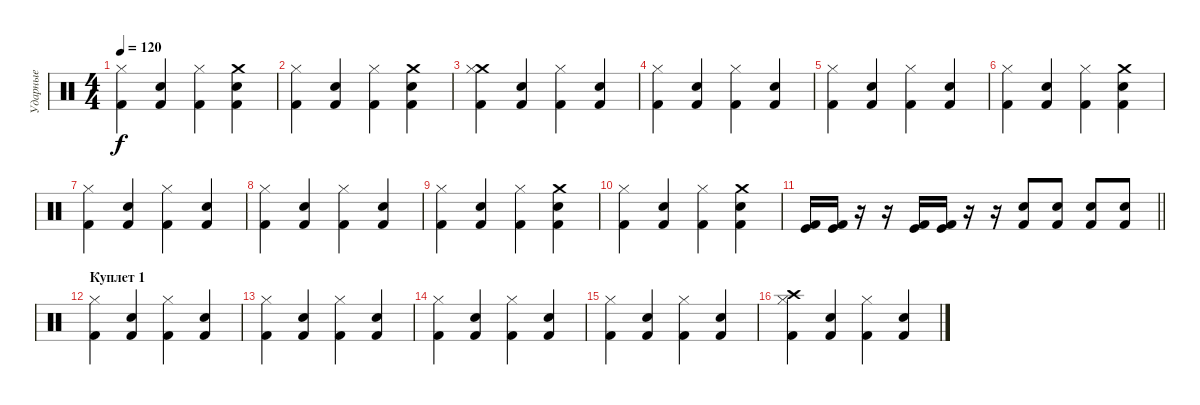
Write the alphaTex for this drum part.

\track ("Ударные" "Ударные") {instrument percussion}
\staff {score}
\articulation defaults
\ts (4 4)
\tempo 120
\clef neutral
\ks c
("Hi-Hat (closed)" "Kick (hit) 2").4{dy f} ("Snare (hit) 2" "Kick (hit) 2").4 ("Hi-Hat (closed)" "Kick (hit) 2").4 ("Crash medium (hit)" "Snare (hit) 2" "Kick (hit) 2").4 |
("Hi-Hat (closed)" "Kick (hit) 2").4 ("Snare (hit) 2" "Kick (hit) 2").4 ("Hi-Hat (closed)" "Kick (hit) 2").4 ("Crash medium (hit)" "Snare (hit) 2" "Kick (hit) 2").4 |
("Crash medium (hit)" "Hi-Hat (closed)" "Kick (hit) 2").4 ("Snare (hit) 2" "Kick (hit) 2").4 ("Hi-Hat (closed)" "Kick (hit) 2").4 ("Snare (hit) 2" "Kick (hit) 2").4 |
("Hi-Hat (closed)" "Kick (hit) 2").4 ("Snare (hit) 2" "Kick (hit) 2").4 ("Hi-Hat (closed)" "Kick (hit) 2").4 ("Snare (hit) 2" "Kick (hit) 2").4 |
("Hi-Hat (closed)" "Kick (hit) 2").4 ("Snare (hit) 2" "Kick (hit) 2").4 ("Hi-Hat (closed)" "Kick (hit) 2").4 ("Snare (hit) 2" "Kick (hit) 2").4 |
("Hi-Hat (closed)" "Kick (hit) 2").4 ("Snare (hit) 2" "Kick (hit) 2").4 ("Hi-Hat (closed)" "Kick (hit) 2").4 ("Crash medium (hit)" "Snare (hit) 2" "Kick (hit) 2").4 |
("Hi-Hat (closed)" "Kick (hit) 2").4 ("Snare (hit) 2" "Kick (hit) 2").4 ("Hi-Hat (closed)" "Kick (hit) 2").4 ("Snare (hit) 2" "Kick (hit) 2").4 |
("Hi-Hat (closed)" "Kick (hit) 2").4 ("Snare (hit) 2" "Kick (hit) 2").4 ("Hi-Hat (closed)" "Kick (hit) 2").4 ("Snare (hit) 2" "Kick (hit) 2").4 |
("Hi-Hat (closed)" "Kick (hit) 2").4 ("Snare (hit) 2" "Kick (hit) 2").4 ("Hi-Hat (closed)" "Kick (hit) 2").4 ("Crash medium (hit)" "Snare (hit) 2" "Kick (hit) 2").4 |
("Hi-Hat (closed)" "Kick (hit) 2").4 ("Snare (hit) 2" "Kick (hit) 2").4 ("Hi-Hat (closed)" "Kick (hit) 2").4 ("Crash medium (hit)" "Snare (hit) 2" "Kick (hit) 2").4 |
\barLineRight lightlight
("Kick (hit)" "Kick (hit) 2").16 ("Kick (hit)" "Kick (hit) 2").16 r.16 r.16 ("Kick (hit)" "Kick (hit) 2").16 ("Kick (hit)" "Kick (hit) 2").16 r.16 r.16 ("Snare (hit) 2" "Kick (hit) 2").8 ("Snare (hit) 2" "Kick (hit) 2").8 ("Snare (hit) 2" "Kick (hit) 2").8 ("Snare (hit) 2" "Kick (hit) 2").8 |
\section ("" "Куплет 1 ")
("Hi-Hat (closed)" "Kick (hit) 2").4 ("Snare (hit) 2" "Kick (hit) 2").4 ("Hi-Hat (closed)" "Kick (hit) 2").4 ("Snare (hit) 2" "Kick (hit) 2").4 |
("Hi-Hat (closed)" "Kick (hit) 2").4 ("Snare (hit) 2" "Kick (hit) 2").4 ("Hi-Hat (closed)" "Kick (hit) 2").4 ("Snare (hit) 2" "Kick (hit) 2").4 |
("Hi-Hat (closed)" "Kick (hit) 2").4 ("Snare (hit) 2" "Kick (hit) 2").4 ("Hi-Hat (closed)" "Kick (hit) 2").4 ("Snare (hit) 2" "Kick (hit) 2").4 |
("Hi-Hat (closed)" "Kick (hit) 2").4 ("Snare (hit) 2" "Kick (hit) 2").4 ("Hi-Hat (closed)" "Kick (hit) 2").4 ("Snare (hit) 2" "Kick (hit) 2").4 |
("Crash high (hit)" "Hi-Hat (closed)" "Kick (hit) 2").4 ("Snare (hit) 2" "Kick (hit) 2").4 ("Hi-Hat (closed)" "Kick (hit) 2").4 ("Snare (hit) 2" "Kick (hit) 2").4
